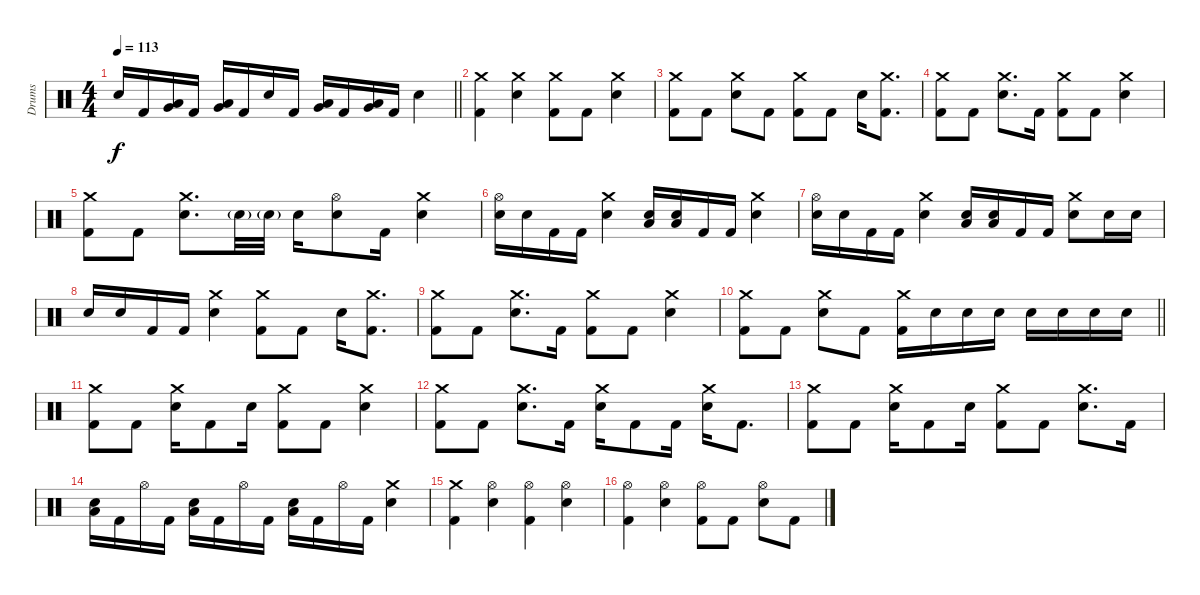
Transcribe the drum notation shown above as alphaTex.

\track ("Drums" "Drums") {instrument percussion}
\staff {score}
\articulation defaults
\ts (4 4)
\tempo 113
\clef neutral
\barLineRight lightlight
\ks c "Electric Snare (hit)".16{dy f} "Kick (hit) 2".16
("Very Low Tom (hit)" "Low Tom (hit)").16 "Kick (hit) 2".16 ("Very Low Tom (hit)" "Low Tom (hit)").16 "Kick (hit) 2".16 "Electric Snare (hit)".16 "Kick (hit) 2".16 ("Very Low Tom (hit)" "Low Tom (hit)").16 "Kick (hit) 2".16 ("Very Low Tom (hit)" "Low Tom (hit)").16 "Kick (hit) 2".16 "Electric Snare (hit)".4 |
\section ("" "")
("Crash medium (hit)" "Kick (hit) 2").4 ("Crash medium (hit)" "Electric Snare (hit)").4 ("Crash medium (hit)" "Kick (hit) 2").8 "Kick (hit) 2".8 ("Crash medium (hit)" "Electric Snare (hit)").4 |
("Crash medium (hit)" "Kick (hit) 2").8 "Kick (hit) 2".8 ("Crash medium (hit)" "Electric Snare (hit)").8 "Kick (hit) 2".8 ("Crash medium (hit)" "Kick (hit) 2").8 "Kick (hit) 2".8 "Electric Snare (hit)".16 ("Crash medium (hit)" "Kick (hit) 2").8{d} |
("Crash medium (hit)" "Kick (hit) 2").8 "Kick (hit) 2".8 ("Crash medium (hit)" "Electric Snare (hit)").8{d} "Kick (hit) 2".16 ("Crash medium (hit)" "Kick (hit) 2").8 "Kick (hit) 2".8 ("Crash medium (hit)" "Electric Snare (hit)").4 |
("Crash medium (hit)" "Kick (hit) 2").8 "Kick (hit) 2".8 ("Crash medium (hit)" "Electric Snare (hit)").8{d} "Electric Snare (hit)"{g}.32 "Electric Snare (hit)"{g}.32 "Electric Snare (hit)".16 ("Hi-Hat (open)" "Electric Snare (hit)").8 "Kick (hit) 2".16 ("Crash medium (hit)" "Electric Snare (hit)").4 |
("Hi-Hat (open)" "Electric Snare (hit)").16 "Electric Snare (hit)".16 "Kick (hit) 2".16 "Kick (hit) 2".16 ("Crash medium (hit)" "Electric Snare (hit)").4 ("Low Floor Tom (hit)" "Electric Snare (hit)").16 ("Low Floor Tom (hit)" "Electric Snare (hit)").16 "Kick (hit) 2".16 "Kick (hit) 2".16 ("Crash medium (hit)" "Electric Snare (hit)").4 |
("Hi-Hat (open)" "Electric Snare (hit)").16 "Electric Snare (hit)".16 "Kick (hit) 2".16 "Kick (hit) 2".16 ("Crash medium (hit)" "Electric Snare (hit)").4 ("Low Floor Tom (hit)" "Electric Snare (hit)").16 ("Low Floor Tom (hit)" "Electric Snare (hit)").16 "Kick (hit) 2".16 "Kick (hit) 2".16 ("Crash medium (hit)" "Electric Snare (hit)").8 "Electric Snare (hit)".16 "Electric Snare (hit)".16 |
"Electric Snare (hit)".16 "Electric Snare (hit)".16 "Kick (hit) 2".16 "Kick (hit) 2".16 ("Crash medium (hit)" "Electric Snare (hit)").4 ("Crash medium (hit)" "Kick (hit) 2").8 "Kick (hit) 2".8 "Electric Snare (hit)".16 ("Crash medium (hit)" "Kick (hit) 2").8{d} |
("Crash medium (hit)" "Kick (hit) 2").8 "Kick (hit) 2".8 ("Crash medium (hit)" "Electric Snare (hit)").8{d} "Kick (hit) 2".16 ("Crash medium (hit)" "Kick (hit) 2").8 "Kick (hit) 2".8 ("Crash medium (hit)" "Electric Snare (hit)").4 |
\barLineRight lightlight
("Crash medium (hit)" "Kick (hit) 2").8 "Kick (hit) 2".8 ("Crash medium (hit)" "Electric Snare (hit)").8 "Kick (hit) 2".8 ("Crash medium (hit)" "Kick (hit) 2").16 "Electric Snare (hit)".16 "Electric Snare (hit)".16 "Electric Snare (hit)".16 "Electric Snare (hit)".16 "Electric Snare (hit)".16 "Electric Snare (hit)".16 "Electric Snare (hit)".16 |
\section ("" "")
("Crash medium (hit)" "Kick (hit) 2").8 "Kick (hit) 2".8 ("Crash medium (hit)" "Electric Snare (hit)").16 "Kick (hit) 2".8 "Electric Snare (hit)".16 ("Crash medium (hit)" "Kick (hit) 2").8 "Kick (hit) 2".8 ("Crash medium (hit)" "Electric Snare (hit)").4 |
("Crash medium (hit)" "Kick (hit) 2").8 "Kick (hit) 2".8 ("Crash medium (hit)" "Electric Snare (hit)").8{d} "Kick (hit) 2".16 ("Crash medium (hit)" "Electric Snare (hit)").16 "Kick (hit) 2".8 "Kick (hit) 2".16 ("Crash medium (hit)" "Electric Snare (hit)").16 "Kick (hit) 2".8{d} |
("Crash medium (hit)" "Kick (hit) 2").8 "Kick (hit) 2".8 ("Crash medium (hit)" "Electric Snare (hit)").16 "Kick (hit) 2".8 "Electric Snare (hit)".16 ("Crash medium (hit)" "Kick (hit) 2").8 "Kick (hit) 2".8 ("Crash medium (hit)" "Electric Snare (hit)").8{d} "Kick (hit) 2".16 |
("Low Floor Tom (hit)" "Electric Snare (hit)").16 "Kick (hit) 2".16 "Hi-Hat (open)".16 "Kick (hit) 2".16 ("Low Floor Tom (hit)" "Electric Snare (hit)").16 "Kick (hit) 2".16 "Hi-Hat (open)".16 "Kick (hit) 2".16 ("Low Floor Tom (hit)" "Electric Snare (hit)").16 "Kick (hit) 2".16 "Hi-Hat (open)".16 "Kick (hit) 2".16 ("Crash medium (hit)" "Electric Snare (hit)").4 |
("Crash medium (hit)" "Kick (hit) 2").4 ("Hi-Hat (open)" "Electric Snare (hit)").4 ("Hi-Hat (open)" "Kick (hit) 2").4 ("Hi-Hat (open)" "Electric Snare (hit)").4 |
("Hi-Hat (open)" "Kick (hit) 2").4 ("Hi-Hat (open)" "Electric Snare (hit)").4 ("Hi-Hat (open)" "Kick (hit) 2").8 "Kick (hit) 2".8 ("Hi-Hat (open)" "Electric Snare (hit)").8 "Kick (hit) 2".8
